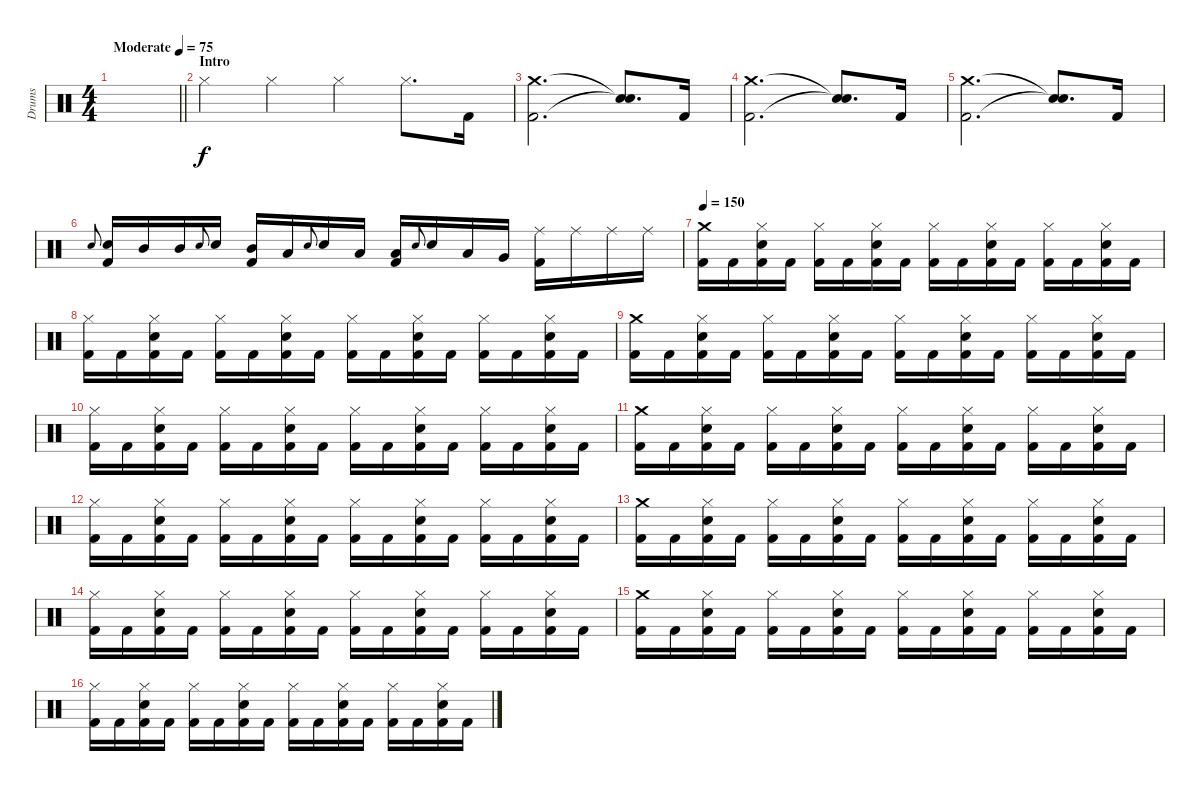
\track ("Drums" "Drums") {instrument percussion}
\staff {score}
\articulation defaults
\ts (4 4)
\tempo (75 "Moderate")
\clef neutral
\barLineRight lightlight
\ks c
|
\section ("" "Intro")
"Hi-Hat (closed)".4 "Hi-Hat (closed)".4 "Hi-Hat (closed)".4 "Hi-Hat (closed)".8{d} "Kick (hit) 2".16 |
("Kick (hit) 2" "Crash medium (hit)").2{d} ("Snare (hit)"{t} "Snare (hit)"{t}).8{d} "Kick (hit) 2".16 |
("Kick (hit) 2" "Crash medium (hit)").2{d} ("Snare (hit)"{t} "Snare (hit)"{t}).8{d} "Kick (hit) 2".16 |
("Kick (hit) 2" "Crash medium (hit)").2{d} ("Snare (hit)"{t} "Snare (hit)"{t}).8{d} "Kick (hit) 2".16 |
"Snare (hit) 2".8{gr onbeat} ("Kick (hit) 2" "Snare (hit) 2").16 "Mid Tom (hit)".16 "Mid Tom (hit)".16 "Snare (hit) 2".8{gr onbeat} "Snare (hit) 2".16 ("Kick (hit) 2" "Mid Tom (hit)").16 "Low Tom (hit)".16 "Snare (hit) 2".8{gr onbeat} "Snare (hit) 2".16 "Low Tom (hit)".16 ("Kick (hit) 2" "Low Tom (hit)").16 "Snare (hit) 2".8{gr onbeat} "Snare (hit) 2".16 "Low Tom (hit)".16 "Very Low Tom (hit)".16 ("Kick (hit) 2" "Ride (middle)").16 "Ride (middle)".16 "Ride (middle)".16 "Ride (middle)".16 |
\tempo 150
("Kick (hit) 2" "Crash medium (hit)").16 "Kick (hit) 2".16 ("Kick (hit) 2" "Snare (hit) 2" "Hi-Hat (closed)").16 "Kick (hit) 2".16 ("Kick (hit) 2" "Hi-Hat (closed)").16 "Kick (hit) 2".16 ("Kick (hit) 2" "Snare (hit) 2" "Hi-Hat (closed)").16 "Kick (hit) 2".16 ("Kick (hit) 2" "Hi-Hat (closed)").16 "Kick (hit) 2".16 ("Kick (hit) 2" "Snare (hit) 2" "Hi-Hat (closed)").16 "Kick (hit) 2".16 ("Kick (hit) 2" "Hi-Hat (closed)").16 "Kick (hit) 2".16 ("Kick (hit) 2" "Snare (hit) 2" "Hi-Hat (closed)").16 "Kick (hit) 2".16 |
("Kick (hit) 2" "Hi-Hat (closed)").16 "Kick (hit) 2".16 ("Kick (hit) 2" "Snare (hit) 2" "Hi-Hat (closed)").16 "Kick (hit) 2".16 ("Kick (hit) 2" "Hi-Hat (closed)").16 "Kick (hit) 2".16 ("Kick (hit) 2" "Snare (hit) 2" "Hi-Hat (closed)").16 "Kick (hit) 2".16 ("Kick (hit) 2" "Hi-Hat (closed)").16 "Kick (hit) 2".16 ("Kick (hit) 2" "Snare (hit) 2" "Hi-Hat (closed)").16 "Kick (hit) 2".16 ("Kick (hit) 2" "Hi-Hat (closed)").16 "Kick (hit) 2".16 ("Kick (hit) 2" "Snare (hit) 2" "Hi-Hat (closed)").16 "Kick (hit) 2".16 |
("Kick (hit) 2" "Crash medium (hit)").16 "Kick (hit) 2".16 ("Kick (hit) 2" "Snare (hit) 2" "Hi-Hat (closed)").16 "Kick (hit) 2".16 ("Kick (hit) 2" "Hi-Hat (closed)").16 "Kick (hit) 2".16 ("Kick (hit) 2" "Snare (hit) 2" "Hi-Hat (closed)").16 "Kick (hit) 2".16 ("Kick (hit) 2" "Hi-Hat (closed)").16 "Kick (hit) 2".16 ("Kick (hit) 2" "Snare (hit) 2" "Hi-Hat (closed)").16 "Kick (hit) 2".16 ("Kick (hit) 2" "Hi-Hat (closed)").16 "Kick (hit) 2".16 ("Kick (hit) 2" "Snare (hit) 2" "Hi-Hat (closed)").16 "Kick (hit) 2".16 |
("Kick (hit) 2" "Hi-Hat (closed)").16 "Kick (hit) 2".16 ("Kick (hit) 2" "Snare (hit) 2" "Hi-Hat (closed)").16 "Kick (hit) 2".16 ("Kick (hit) 2" "Hi-Hat (closed)").16 "Kick (hit) 2".16 ("Kick (hit) 2" "Snare (hit) 2" "Hi-Hat (closed)").16 "Kick (hit) 2".16 ("Kick (hit) 2" "Hi-Hat (closed)").16 "Kick (hit) 2".16 ("Kick (hit) 2" "Snare (hit) 2" "Hi-Hat (closed)").16 "Kick (hit) 2".16 ("Kick (hit) 2" "Hi-Hat (closed)").16 "Kick (hit) 2".16 ("Kick (hit) 2" "Snare (hit) 2" "Hi-Hat (closed)").16 "Kick (hit) 2".16 |
("Kick (hit) 2" "Crash medium (hit)").16 "Kick (hit) 2".16 ("Kick (hit) 2" "Snare (hit) 2" "Hi-Hat (closed)").16 "Kick (hit) 2".16 ("Kick (hit) 2" "Hi-Hat (closed)").16 "Kick (hit) 2".16 ("Kick (hit) 2" "Snare (hit) 2" "Hi-Hat (closed)").16 "Kick (hit) 2".16 ("Kick (hit) 2" "Hi-Hat (closed)").16 "Kick (hit) 2".16 ("Kick (hit) 2" "Snare (hit) 2" "Hi-Hat (closed)").16 "Kick (hit) 2".16 ("Kick (hit) 2" "Hi-Hat (closed)").16 "Kick (hit) 2".16 ("Kick (hit) 2" "Snare (hit) 2" "Hi-Hat (closed)").16 "Kick (hit) 2".16 |
("Kick (hit) 2" "Hi-Hat (closed)").16 "Kick (hit) 2".16 ("Kick (hit) 2" "Snare (hit) 2" "Hi-Hat (closed)").16 "Kick (hit) 2".16 ("Kick (hit) 2" "Hi-Hat (closed)").16 "Kick (hit) 2".16 ("Kick (hit) 2" "Snare (hit) 2" "Hi-Hat (closed)").16 "Kick (hit) 2".16 ("Kick (hit) 2" "Hi-Hat (closed)").16 "Kick (hit) 2".16 ("Kick (hit) 2" "Snare (hit) 2" "Hi-Hat (closed)").16 "Kick (hit) 2".16 ("Kick (hit) 2" "Hi-Hat (closed)").16 "Kick (hit) 2".16 ("Kick (hit) 2" "Snare (hit) 2" "Hi-Hat (closed)").16 "Kick (hit) 2".16 |
("Kick (hit) 2" "Crash medium (hit)").16 "Kick (hit) 2".16 ("Kick (hit) 2" "Snare (hit) 2" "Hi-Hat (closed)").16 "Kick (hit) 2".16 ("Kick (hit) 2" "Hi-Hat (closed)").16 "Kick (hit) 2".16 ("Kick (hit) 2" "Snare (hit) 2" "Hi-Hat (closed)").16 "Kick (hit) 2".16 ("Kick (hit) 2" "Hi-Hat (closed)").16 "Kick (hit) 2".16 ("Kick (hit) 2" "Snare (hit) 2" "Hi-Hat (closed)").16 "Kick (hit) 2".16 ("Kick (hit) 2" "Hi-Hat (closed)").16 "Kick (hit) 2".16 ("Kick (hit) 2" "Snare (hit) 2" "Hi-Hat (closed)").16 "Kick (hit) 2".16 |
("Kick (hit) 2" "Hi-Hat (closed)").16 "Kick (hit) 2".16 ("Kick (hit) 2" "Snare (hit) 2" "Hi-Hat (closed)").16 "Kick (hit) 2".16 ("Kick (hit) 2" "Hi-Hat (closed)").16 "Kick (hit) 2".16 ("Kick (hit) 2" "Snare (hit) 2" "Hi-Hat (closed)").16 "Kick (hit) 2".16 ("Kick (hit) 2" "Hi-Hat (closed)").16 "Kick (hit) 2".16 ("Kick (hit) 2" "Snare (hit) 2" "Hi-Hat (closed)").16 "Kick (hit) 2".16 ("Kick (hit) 2" "Hi-Hat (closed)").16 "Kick (hit) 2".16 ("Kick (hit) 2" "Snare (hit) 2" "Hi-Hat (closed)").16 "Kick (hit) 2".16 |
("Kick (hit) 2" "Crash medium (hit)").16 "Kick (hit) 2".16 ("Kick (hit) 2" "Snare (hit) 2" "Hi-Hat (closed)").16 "Kick (hit) 2".16 ("Kick (hit) 2" "Hi-Hat (closed)").16 "Kick (hit) 2".16 ("Kick (hit) 2" "Snare (hit) 2" "Hi-Hat (closed)").16 "Kick (hit) 2".16 ("Kick (hit) 2" "Hi-Hat (closed)").16 "Kick (hit) 2".16 ("Kick (hit) 2" "Snare (hit) 2" "Hi-Hat (closed)").16 "Kick (hit) 2".16 ("Kick (hit) 2" "Hi-Hat (closed)").16 "Kick (hit) 2".16 ("Kick (hit) 2" "Snare (hit) 2" "Hi-Hat (closed)").16 "Kick (hit) 2".16 |
("Kick (hit) 2" "Hi-Hat (closed)").16 "Kick (hit) 2".16 ("Kick (hit) 2" "Snare (hit) 2" "Hi-Hat (closed)").16 "Kick (hit) 2".16 ("Kick (hit) 2" "Hi-Hat (closed)").16 "Kick (hit) 2".16 ("Kick (hit) 2" "Snare (hit) 2" "Hi-Hat (closed)").16 "Kick (hit) 2".16 ("Kick (hit) 2" "Hi-Hat (closed)").16 "Kick (hit) 2".16 ("Kick (hit) 2" "Snare (hit) 2" "Hi-Hat (closed)").16 "Kick (hit) 2".16 ("Kick (hit) 2" "Hi-Hat (closed)").16 "Kick (hit) 2".16 ("Kick (hit) 2" "Snare (hit) 2" "Hi-Hat (closed)").16 "Kick (hit) 2".16
